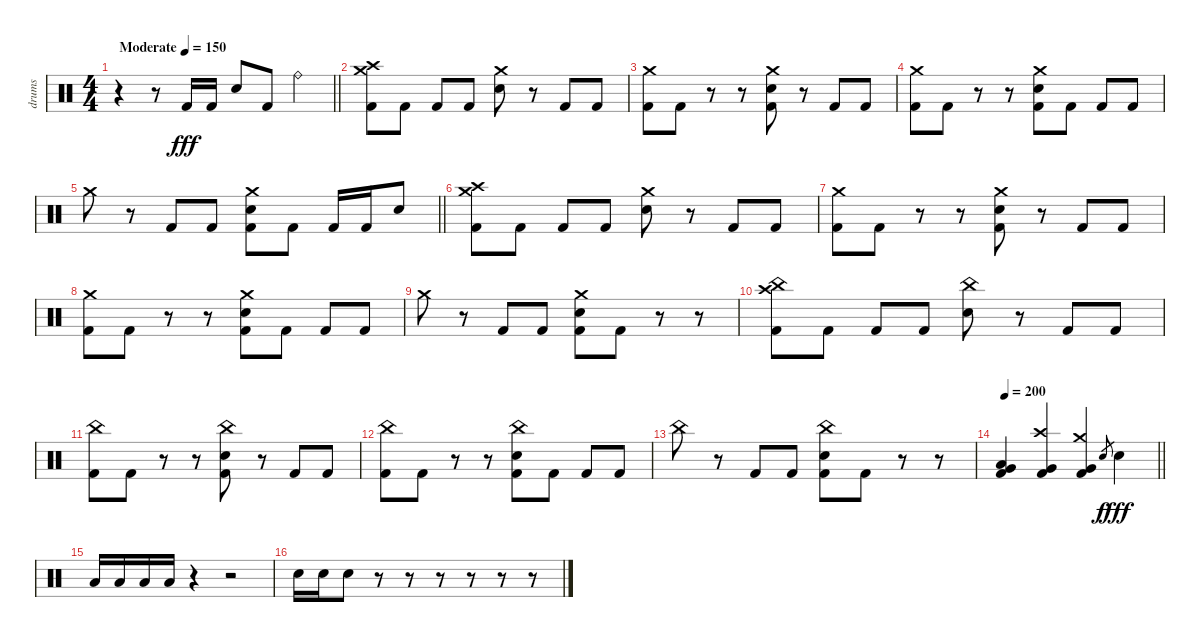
\track ("drums" "drums") {instrument percussion}
\staff {score}
\articulation defaults
\ts (4 4)
\tempo (150 "Moderate")
\clef neutral
\barLineRight lightlight
\ks c
r.4{dy fff} r.8 "Kick (hit) 2".16 "Kick (hit) 2".16 "Electric Snare (hit)".8 "Kick (hit) 2".8 "Ride (bell)".4 |
\section ("" "")
("Crash high (hit)" "Crash medium (hit)" "Kick (hit) 2").8 "Kick (hit) 2".8 "Kick (hit) 2".8 "Kick (hit) 2".8 ("Crash medium (hit)" "Electric Snare (hit)").8 r.8 "Kick (hit) 2".8 "Kick (hit) 2".8 |
("Crash medium (hit)" "Kick (hit) 2").8 "Kick (hit) 2".8 r.8 r.8 ("Crash medium (hit)" "Electric Snare (hit)" "Kick (hit) 2").8 r.8 "Kick (hit) 2".8 "Kick (hit) 2".8 |
("Crash medium (hit)" "Kick (hit) 2").8 "Kick (hit) 2".8 r.8 r.8 ("Crash medium (hit)" "Electric Snare (hit)" "Kick (hit) 2").8 "Kick (hit) 2".8 "Kick (hit) 2".8 "Kick (hit) 2".8 |
\barLineRight lightlight "Crash medium (hit)".8
r.8 "Kick (hit) 2".8 "Kick (hit) 2".8 ("Crash medium (hit)" "Electric Snare (hit)" "Kick (hit) 2").8 "Kick (hit) 2".8 "Kick (hit) 2".16 "Kick (hit) 2".16 "Electric Snare (hit)".8 |
\section ("" "")
("Crash high (hit)" "Crash medium (hit)" "Kick (hit) 2").8 "Kick (hit) 2".8 "Kick (hit) 2".8 "Kick (hit) 2".8 ("Crash medium (hit)" "Electric Snare (hit)").8 r.8 "Kick (hit) 2".8 "Kick (hit) 2".8 |
("Crash medium (hit)" "Kick (hit) 2").8 "Kick (hit) 2".8 r.8 r.8 ("Crash medium (hit)" "Electric Snare (hit)" "Kick (hit) 2").8 r.8 "Kick (hit) 2".8 "Kick (hit) 2".8 |
("Crash medium (hit)" "Kick (hit) 2").8 "Kick (hit) 2".8 r.8 r.8 ("Crash medium (hit)" "Electric Snare (hit)" "Kick (hit) 2").8 "Kick (hit) 2".8 "Kick (hit) 2".8 "Kick (hit) 2".8 |
"Crash medium (hit)".8 r.8 "Kick (hit) 2".8 "Kick (hit) 2".8 ("Crash medium (hit)" "Electric Snare (hit)" "Kick (hit) 2").8 "Kick (hit) 2".8 r.8 r.8 |
("Crash high (hit)" "China (hit)" "Kick (hit) 2").8 "Kick (hit) 2".8 "Kick (hit) 2".8 "Kick (hit) 2".8 ("China (hit)" "Electric Snare (hit)").8 r.8 "Kick (hit) 2".8 "Kick (hit) 2".8 |
("China (hit)" "Kick (hit) 2").8 "Kick (hit) 2".8 r.8 r.8 ("China (hit)" "Electric Snare (hit)" "Kick (hit) 2").8 r.8 "Kick (hit) 2".8 "Kick (hit) 2".8 |
("China (hit)" "Kick (hit) 2").8 "Kick (hit) 2".8 r.8 r.8 ("China (hit)" "Electric Snare (hit)" "Kick (hit) 2").8 "Kick (hit) 2".8 "Kick (hit) 2".8 "Kick (hit) 2".8 |
"China (hit)".8 r.8 "Kick (hit) 2".8 "Kick (hit) 2".8 ("China (hit)" "Electric Snare (hit)" "Kick (hit) 2").8 "Kick (hit) 2".8 r.8 r.8 |
\tempo 200
\barLineRight lightlight
("Very Low Tom (hit)" "Low Floor Tom (hit)" "Kick (hit) 2").4 ("Crash high (hit)" "Very Low Tom (hit)" "Kick (hit) 2").4 ("Crash medium (hit)" "Very Low Tom (hit)" "Kick (hit) 2").4 "Electric Snare (hit)".8{gr dy f} "Electric Snare (hit)".4{dy fff} |
\section ("" "")
"Low Floor Tom (hit)".16 "Low Floor Tom (hit)".16 "Low Floor Tom (hit)".16 "Low Floor Tom (hit)".16 r.4 r.2 |
"Electric Snare (hit)".16 "Electric Snare (hit)".16 "Electric Snare (hit)".8 r.8 r.8 r.8 r.8 r.8 r.8
